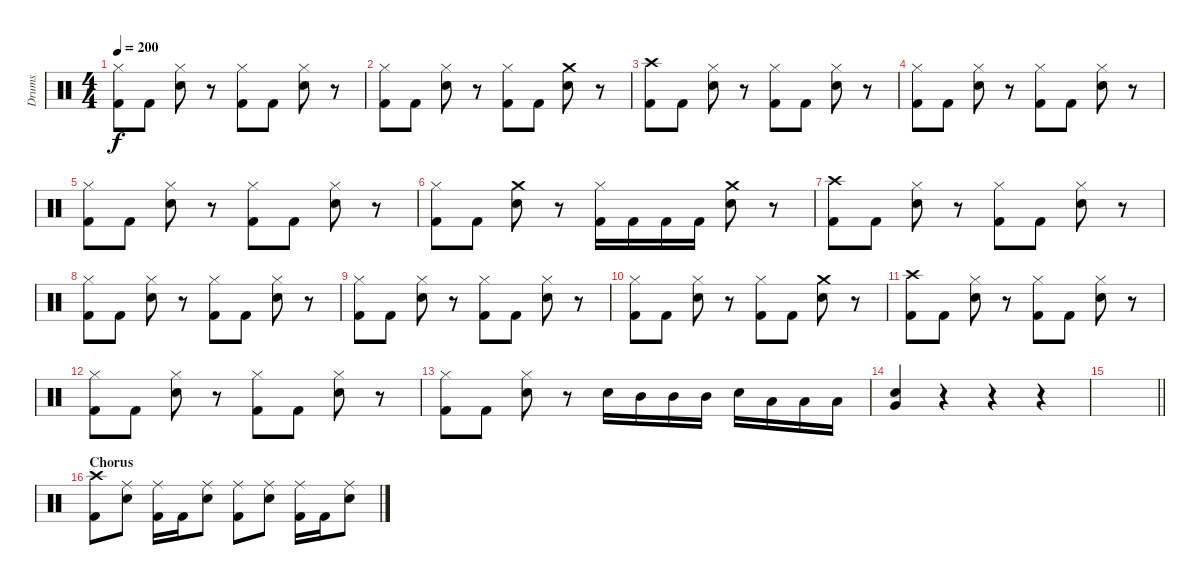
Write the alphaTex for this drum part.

\track ("Drums" "Drums") {instrument percussion}
\staff {score}
\articulation defaults
\ts (4 4)
\tempo 200
\clef neutral
\ks c
("Hi-Hat (closed)" "Kick (hit) 2").8{dy f} "Kick (hit) 2".8 ("Hi-Hat (closed)" "Electric Snare (hit)").8 r.8 ("Hi-Hat (closed)" "Kick (hit) 2").8 "Kick (hit) 2".8 ("Hi-Hat (closed)" "Electric Snare (hit)").8 r.8 |
("Hi-Hat (closed)" "Kick (hit) 2").8 "Kick (hit) 2".8 ("Hi-Hat (closed)" "Electric Snare (hit)").8 r.8 ("Hi-Hat (closed)" "Kick (hit) 2").8 "Kick (hit) 2".8 ("Crash medium (hit)" "Electric Snare (hit)").8 r.8 |
("Crash high (hit)" "Kick (hit) 2").8 "Kick (hit) 2".8 ("Hi-Hat (closed)" "Electric Snare (hit)").8 r.8 ("Hi-Hat (closed)" "Kick (hit) 2").8 "Kick (hit) 2".8 ("Hi-Hat (closed)" "Electric Snare (hit)").8 r.8 |
("Hi-Hat (closed)" "Kick (hit) 2").8 "Kick (hit) 2".8 ("Hi-Hat (closed)" "Electric Snare (hit)").8 r.8 ("Hi-Hat (closed)" "Kick (hit) 2").8 "Kick (hit) 2".8 ("Hi-Hat (closed)" "Electric Snare (hit)").8 r.8 |
("Hi-Hat (closed)" "Kick (hit) 2").8 "Kick (hit) 2".8 ("Hi-Hat (closed)" "Electric Snare (hit)").8 r.8 ("Hi-Hat (closed)" "Kick (hit) 2").8 "Kick (hit) 2".8 ("Hi-Hat (closed)" "Electric Snare (hit)").8 r.8 |
("Hi-Hat (closed)" "Kick (hit) 2").8 "Kick (hit) 2".8 ("Crash medium (hit)" "Electric Snare (hit)").8 r.8 ("Hi-Hat (closed)" "Kick (hit) 2").16 "Kick (hit) 2".16 "Kick (hit) 2".16 "Kick (hit) 2".16 ("Crash medium (hit)" "Electric Snare (hit)").8 r.8 |
("Crash high (hit)" "Kick (hit) 2").8 "Kick (hit) 2".8 ("Hi-Hat (closed)" "Electric Snare (hit)").8 r.8 ("Hi-Hat (closed)" "Kick (hit) 2").8 "Kick (hit) 2".8 ("Hi-Hat (closed)" "Electric Snare (hit)").8 r.8 |
("Hi-Hat (closed)" "Kick (hit) 2").8 "Kick (hit) 2".8 ("Hi-Hat (closed)" "Electric Snare (hit)").8 r.8 ("Hi-Hat (closed)" "Kick (hit) 2").8 "Kick (hit) 2".8 ("Hi-Hat (closed)" "Electric Snare (hit)").8 r.8 |
("Hi-Hat (closed)" "Kick (hit) 2").8 "Kick (hit) 2".8 ("Hi-Hat (closed)" "Electric Snare (hit)").8 r.8 ("Hi-Hat (closed)" "Kick (hit) 2").8 "Kick (hit) 2".8 ("Hi-Hat (closed)" "Electric Snare (hit)").8 r.8 |
("Hi-Hat (closed)" "Kick (hit) 2").8 "Kick (hit) 2".8 ("Hi-Hat (closed)" "Electric Snare (hit)").8 r.8 ("Hi-Hat (closed)" "Kick (hit) 2").8 "Kick (hit) 2".8 ("Crash medium (hit)" "Electric Snare (hit)").8 r.8 |
("Crash high (hit)" "Kick (hit) 2").8 "Kick (hit) 2".8 ("Hi-Hat (closed)" "Electric Snare (hit)").8 r.8 ("Hi-Hat (closed)" "Kick (hit) 2").8 "Kick (hit) 2".8 ("Hi-Hat (closed)" "Electric Snare (hit)").8 r.8 |
("Hi-Hat (closed)" "Kick (hit) 2").8 "Kick (hit) 2".8 ("Hi-Hat (closed)" "Electric Snare (hit)").8 r.8 ("Hi-Hat (closed)" "Kick (hit) 2").8 "Kick (hit) 2".8 ("Hi-Hat (closed)" "Electric Snare (hit)").8 r.8 |
("Hi-Hat (closed)" "Kick (hit) 2").8 "Kick (hit) 2".8 ("Hi-Hat (closed)" "Electric Snare (hit)").8 r.8 "Electric Snare (hit)".16 "Mid Tom (hit)".16 "Mid Tom (hit)".16 "Mid Tom (hit)".16 "Electric Snare (hit)".16 "Low Tom (hit)".16 "Low Tom (hit)".16 "Low Tom (hit)".16 |
("Very Low Tom (hit)" "Electric Snare (hit)").4 r.4 r.4 r.4 |
\barLineRight lightlight
|
\section ("" "Chorus")
("Crash high (hit)" "Kick (hit) 2").8 ("Ride (middle)" "Electric Snare (hit)").8 ("Ride (middle)" "Kick (hit) 2").16 "Kick (hit) 2".16 ("Ride (middle)" "Electric Snare (hit)").8 ("Ride (middle)" "Kick (hit) 2").8 ("Ride (middle)" "Electric Snare (hit)").8 ("Ride (middle)" "Kick (hit) 2").16 "Kick (hit) 2".16 ("Ride (middle)" "Electric Snare (hit)").8
